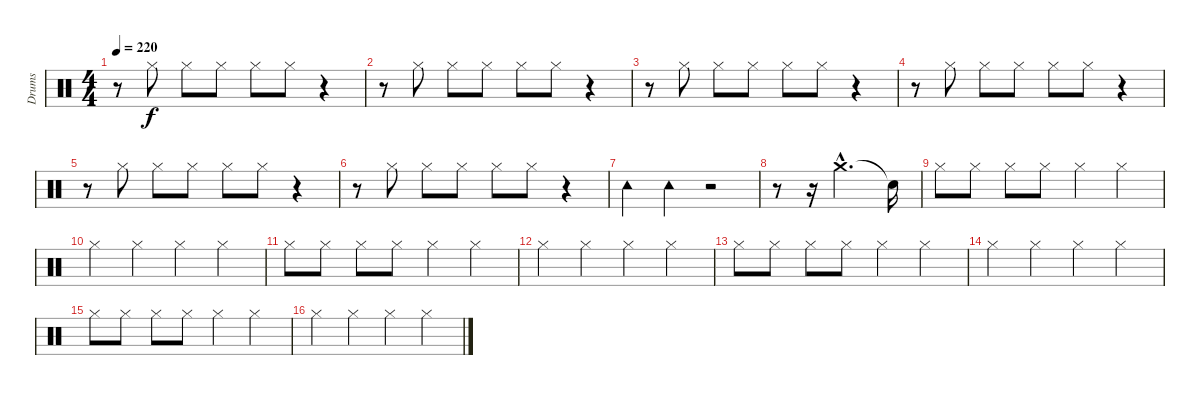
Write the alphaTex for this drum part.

\track ("Drums" "Drums") {instrument percussion}
\staff {score}
\articulation defaults
\ts (4 4)
\tempo 220
\clef neutral
\ks c
r.8{dy f} "Hi-Hat (closed)".8 "Hi-Hat (closed)".8 "Hi-Hat (closed)".8 "Hi-Hat (closed)".8 "Hi-Hat (closed)".8 r.4 |
r.8 "Hi-Hat (closed)".8 "Hi-Hat (closed)".8 "Hi-Hat (closed)".8 "Hi-Hat (closed)".8 "Hi-Hat (closed)".8 r.4 |
r.8 "Hi-Hat (closed)".8 "Hi-Hat (closed)".8 "Hi-Hat (closed)".8 "Hi-Hat (closed)".8 "Hi-Hat (closed)".8 r.4 |
r.8 "Hi-Hat (closed)".8 "Hi-Hat (closed)".8 "Hi-Hat (closed)".8 "Hi-Hat (closed)".8 "Hi-Hat (closed)".8 r.4 |
r.8 "Hi-Hat (closed)".8 "Hi-Hat (closed)".8 "Hi-Hat (closed)".8 "Hi-Hat (closed)".8 "Hi-Hat (closed)".8 r.4 |
r.8 "Hi-Hat (closed)".8 "Hi-Hat (closed)".8 "Hi-Hat (closed)".8 "Hi-Hat (closed)".8 "Hi-Hat (closed)".8 r.4 |
"Tambourine (hit)".4 "Tambourine (hit)".4 r.2 |
r.8 r.16 "Crash medium (hit)"{hac}.2{d} "Snare (hit)"{t}.16 |
"Hi-Hat (closed)".8 "Hi-Hat (closed)".8 "Hi-Hat (closed)".8 "Hi-Hat (closed)".8 "Hi-Hat (closed)".4 "Hi-Hat (closed)".4 |
"Hi-Hat (closed)".4 "Hi-Hat (closed)".4 "Hi-Hat (closed)".4 "Hi-Hat (closed)".4 |
"Hi-Hat (closed)".8 "Hi-Hat (closed)".8 "Hi-Hat (closed)".8 "Hi-Hat (closed)".8 "Hi-Hat (closed)".4 "Hi-Hat (closed)".4 |
"Hi-Hat (closed)".4 "Hi-Hat (closed)".4 "Hi-Hat (closed)".4 "Hi-Hat (closed)".4 |
"Hi-Hat (closed)".8 "Hi-Hat (closed)".8 "Hi-Hat (closed)".8 "Hi-Hat (closed)".8 "Hi-Hat (closed)".4 "Hi-Hat (closed)".4 |
"Hi-Hat (closed)".4 "Hi-Hat (closed)".4 "Hi-Hat (closed)".4 "Hi-Hat (closed)".4 |
"Hi-Hat (closed)".8 "Hi-Hat (closed)".8 "Hi-Hat (closed)".8 "Hi-Hat (closed)".8 "Hi-Hat (closed)".4 "Hi-Hat (closed)".4 |
"Hi-Hat (closed)".4 "Hi-Hat (closed)".4 "Hi-Hat (closed)".4 "Hi-Hat (closed)".4
